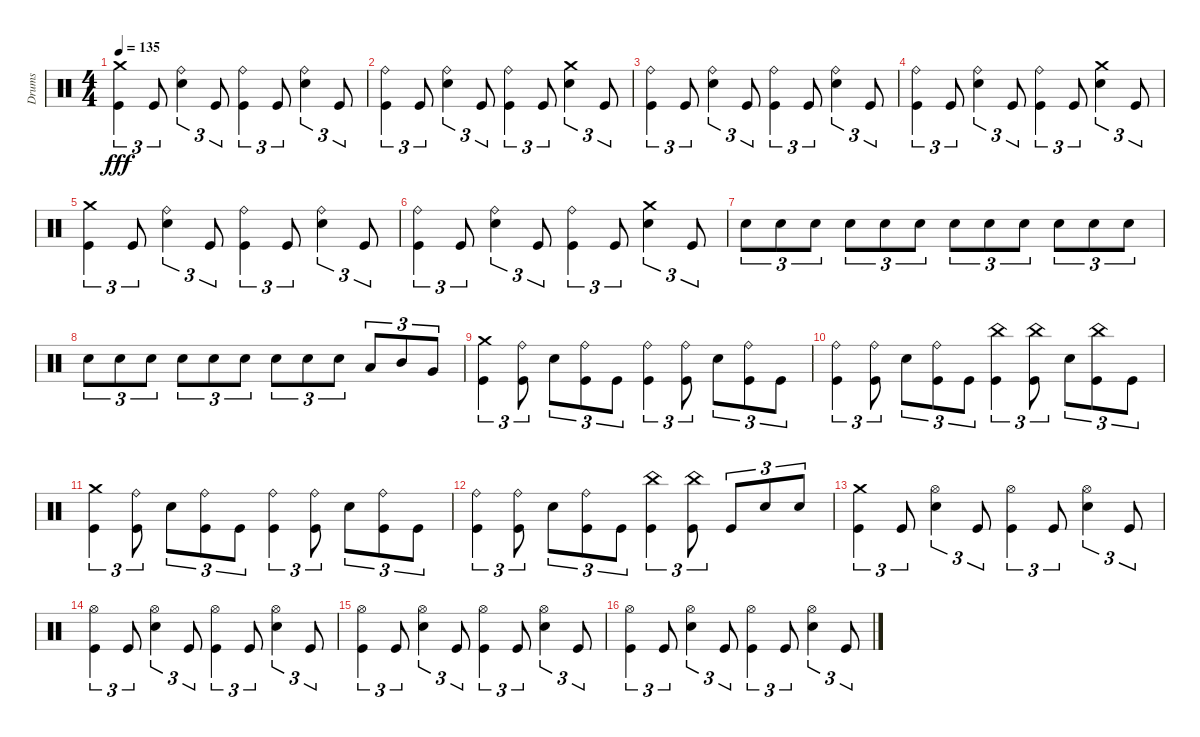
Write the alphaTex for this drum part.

\track ("Drums" "Drums") {instrument percussion}
\staff {score}
\articulation defaults
\ts (4 4)
\tempo 135
\clef neutral
\ks c
("Crash medium (hit)" "Kick (hit)").4{tu (3 2) dy fff} "Kick (hit)".8{tu (3 2)} ("Ride (bell)" "Snare (hit) 2").4{tu (3 2)} "Kick (hit)".8{tu (3 2)} ("Ride (bell)" "Kick (hit)").4{tu (3 2)} "Kick (hit)".8{tu (3 2)} ("Ride (bell)" "Snare (hit) 2").4{tu (3 2)} "Kick (hit)".8{tu (3 2)} |
("Ride (bell)" "Kick (hit)").4{tu (3 2)} "Kick (hit)".8{tu (3 2)} ("Ride (bell)" "Snare (hit) 2").4{tu (3 2)} "Kick (hit)".8{tu (3 2)} ("Ride (bell)" "Kick (hit)").4{tu (3 2)} "Kick (hit)".8{tu (3 2)} ("Crash medium (hit)" "Snare (hit) 2").4{tu (3 2)} "Kick (hit)".8{tu (3 2)} |
("Ride (bell)" "Kick (hit)").4{tu (3 2)} "Kick (hit)".8{tu (3 2)} ("Ride (bell)" "Snare (hit) 2").4{tu (3 2)} "Kick (hit)".8{tu (3 2)} ("Ride (bell)" "Kick (hit)").4{tu (3 2)} "Kick (hit)".8{tu (3 2)} ("Ride (bell)" "Snare (hit) 2").4{tu (3 2)} "Kick (hit)".8{tu (3 2)} |
("Ride (bell)" "Kick (hit)").4{tu (3 2)} "Kick (hit)".8{tu (3 2)} ("Ride (bell)" "Snare (hit) 2").4{tu (3 2)} "Kick (hit)".8{tu (3 2)} ("Ride (bell)" "Kick (hit)").4{tu (3 2)} "Kick (hit)".8{tu (3 2)} ("Crash medium (hit)" "Snare (hit) 2").4{tu (3 2)} "Kick (hit)".8{tu (3 2)} |
("Crash medium (hit)" "Kick (hit)").4{tu (3 2)} "Kick (hit)".8{tu (3 2)} ("Ride (bell)" "Snare (hit) 2").4{tu (3 2)} "Kick (hit)".8{tu (3 2)} ("Ride (bell)" "Kick (hit)").4{tu (3 2)} "Kick (hit)".8{tu (3 2)} ("Ride (bell)" "Snare (hit) 2").4{tu (3 2)} "Kick (hit)".8{tu (3 2)} |
("Ride (bell)" "Kick (hit)").4{tu (3 2)} "Kick (hit)".8{tu (3 2)} ("Ride (bell)" "Snare (hit) 2").4{tu (3 2)} "Kick (hit)".8{tu (3 2)} ("Ride (bell)" "Kick (hit)").4{tu (3 2)} "Kick (hit)".8{tu (3 2)} ("Crash medium (hit)" "Snare (hit) 2").4{tu (3 2)} "Kick (hit)".8{tu (3 2)} |
"Snare (hit) 2".8{tu (3 2)} "Snare (hit) 2".8{tu (3 2)} "Snare (hit) 2".8{tu (3 2)} "Snare (hit) 2".8{tu (3 2)} "Snare (hit) 2".8{tu (3 2)} "Snare (hit) 2".8{tu (3 2)} "Snare (hit) 2".8{tu (3 2)} "Snare (hit) 2".8{tu (3 2)} "Snare (hit) 2".8{tu (3 2)} "Snare (hit) 2".8{tu (3 2)} "Snare (hit) 2".8{tu (3 2)} "Snare (hit) 2".8{tu (3 2)} |
"Snare (hit) 2".8{tu (3 2)} "Snare (hit) 2".8{tu (3 2)} "Snare (hit) 2".8{tu (3 2)} "Snare (hit) 2".8{tu (3 2)} "Snare (hit) 2".8{tu (3 2)} "Snare (hit) 2".8{tu (3 2)} "Snare (hit) 2".8{tu (3 2)} "Snare (hit) 2".8{tu (3 2)} "Snare (hit) 2".8{tu (3 2)} "Low Tom (hit)".8{tu (3 2)} "Mid Tom (hit)".8{tu (3 2)} "Very Low Tom (hit)".8{tu (3 2)} |
("Crash medium (hit)" "Kick (hit)").4{tu (3 2)} ("Ride (bell)" "Kick (hit)").8{tu (3 2)} "Snare (hit) 2".8{tu (3 2)} ("Ride (bell)" "Kick (hit)").8{tu (3 2)} "Kick (hit)".8{tu (3 2)} ("Ride (bell)" "Kick (hit)").4{tu (3 2)} ("Ride (bell)" "Kick (hit)").8{tu (3 2)} "Snare (hit) 2".8{tu (3 2)} ("Ride (bell)" "Kick (hit)").8{tu (3 2)} "Kick (hit)".8{tu (3 2)} |
("Ride (bell)" "Kick (hit)").4{tu (3 2)} ("Ride (bell)" "Kick (hit)").8{tu (3 2)} "Snare (hit) 2".8{tu (3 2)} ("Ride (bell)" "Kick (hit)").8{tu (3 2)} "Kick (hit)".8{tu (3 2)} ("China (hit)" "Kick (hit)").4{tu (3 2)} ("China (hit)" "Kick (hit)").8{tu (3 2)} "Snare (hit) 2".8{tu (3 2)} ("China (hit)" "Kick (hit)").8{tu (3 2)} "Kick (hit)".8{tu (3 2)} |
("Crash medium (hit)" "Kick (hit)").4{tu (3 2)} ("Ride (bell)" "Kick (hit)").8{tu (3 2)} "Snare (hit) 2".8{tu (3 2)} ("Ride (bell)" "Kick (hit)").8{tu (3 2)} "Kick (hit)".8{tu (3 2)} ("Ride (bell)" "Kick (hit)").4{tu (3 2)} ("Ride (bell)" "Kick (hit)").8{tu (3 2)} "Snare (hit) 2".8{tu (3 2)} ("Ride (bell)" "Kick (hit)").8{tu (3 2)} "Kick (hit)".8{tu (3 2)} |
("Ride (bell)" "Kick (hit)").4{tu (3 2)} ("Ride (bell)" "Kick (hit)").8{tu (3 2)} "Snare (hit) 2".8{tu (3 2)} ("Ride (bell)" "Kick (hit)").8{tu (3 2)} "Kick (hit)".8{tu (3 2)} ("China (hit)" "Kick (hit)").4{tu (3 2)} ("China (hit)" "Kick (hit)").8{tu (3 2)} "Kick (hit)".8{tu (3 2)} "Snare (hit) 2".8{tu (3 2)} "Snare (hit) 2".8{tu (3 2)} |
("Crash medium (hit)" "Kick (hit)").4{tu (3 2)} "Kick (hit)".8{tu (3 2)} ("Hi-Hat (open)" "Snare (hit) 2").4{tu (3 2)} "Kick (hit)".8{tu (3 2)} ("Hi-Hat (open)" "Kick (hit)").4{tu (3 2)} "Kick (hit)".8{tu (3 2)} ("Hi-Hat (open)" "Snare (hit) 2").4{tu (3 2)} "Kick (hit)".8{tu (3 2)} |
("Hi-Hat (open)" "Kick (hit)").4{tu (3 2)} "Kick (hit)".8{tu (3 2)} ("Hi-Hat (open)" "Snare (hit) 2").4{tu (3 2)} "Kick (hit)".8{tu (3 2)} ("Hi-Hat (open)" "Kick (hit)").4{tu (3 2)} "Kick (hit)".8{tu (3 2)} ("Hi-Hat (open)" "Snare (hit) 2").4{tu (3 2)} "Kick (hit)".8{tu (3 2)} |
("Hi-Hat (open)" "Kick (hit)").4{tu (3 2)} "Kick (hit)".8{tu (3 2)} ("Hi-Hat (open)" "Snare (hit) 2").4{tu (3 2)} "Kick (hit)".8{tu (3 2)} ("Hi-Hat (open)" "Kick (hit)").4{tu (3 2)} "Kick (hit)".8{tu (3 2)} ("Hi-Hat (open)" "Snare (hit) 2").4{tu (3 2)} "Kick (hit)".8{tu (3 2)} |
("Hi-Hat (open)" "Kick (hit)").4{tu (3 2)} "Kick (hit)".8{tu (3 2)} ("Hi-Hat (open)" "Snare (hit) 2").4{tu (3 2)} "Kick (hit)".8{tu (3 2)} ("Hi-Hat (open)" "Kick (hit)").4{tu (3 2)} "Kick (hit)".8{tu (3 2)} ("Hi-Hat (open)" "Snare (hit) 2").4{tu (3 2)} "Kick (hit)".8{tu (3 2)}
